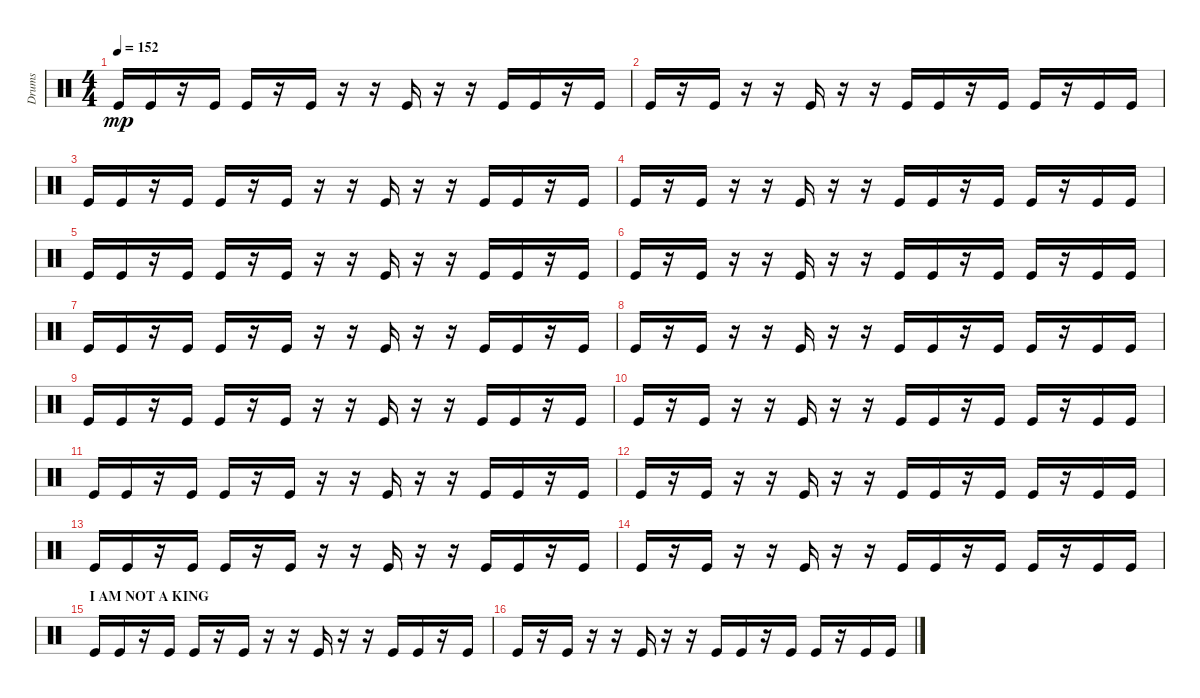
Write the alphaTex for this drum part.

\track ("Drums" "Drums") {instrument percussion}
\staff {score}
\articulation defaults
\ts (4 4)
\tempo 152
\clef neutral
\ks c "Kick (hit)".16{dy mp} "Kick (hit)".16
r.16 "Kick (hit)".16 "Kick (hit)".16 r.16 "Kick (hit)".16 r.16 r.16 "Kick (hit)".16 r.16 r.16 "Kick (hit)".16 "Kick (hit)".16 r.16 "Kick (hit)".16 |
"Kick (hit)".16 r.16 "Kick (hit)".16 r.16 r.16 "Kick (hit)".16 r.16 r.16 "Kick (hit)".16 "Kick (hit)".16 r.16 "Kick (hit)".16 "Kick (hit)".16 r.16 "Kick (hit)".16 "Kick (hit)".16 |
"Kick (hit)".16 "Kick (hit)".16 r.16 "Kick (hit)".16 "Kick (hit)".16 r.16 "Kick (hit)".16 r.16 r.16 "Kick (hit)".16 r.16 r.16 "Kick (hit)".16 "Kick (hit)".16 r.16 "Kick (hit)".16 |
"Kick (hit)".16 r.16 "Kick (hit)".16 r.16 r.16 "Kick (hit)".16 r.16 r.16 "Kick (hit)".16 "Kick (hit)".16 r.16 "Kick (hit)".16 "Kick (hit)".16 r.16 "Kick (hit)".16 "Kick (hit)".16 |
"Kick (hit)".16 "Kick (hit)".16 r.16 "Kick (hit)".16 "Kick (hit)".16 r.16 "Kick (hit)".16 r.16 r.16 "Kick (hit)".16 r.16 r.16 "Kick (hit)".16 "Kick (hit)".16 r.16 "Kick (hit)".16 |
"Kick (hit)".16 r.16 "Kick (hit)".16 r.16 r.16 "Kick (hit)".16 r.16 r.16 "Kick (hit)".16 "Kick (hit)".16 r.16 "Kick (hit)".16 "Kick (hit)".16 r.16 "Kick (hit)".16 "Kick (hit)".16 |
"Kick (hit)".16 "Kick (hit)".16 r.16 "Kick (hit)".16 "Kick (hit)".16 r.16 "Kick (hit)".16 r.16 r.16 "Kick (hit)".16 r.16 r.16 "Kick (hit)".16 "Kick (hit)".16 r.16 "Kick (hit)".16 |
"Kick (hit)".16 r.16 "Kick (hit)".16 r.16 r.16 "Kick (hit)".16 r.16 r.16 "Kick (hit)".16 "Kick (hit)".16 r.16 "Kick (hit)".16 "Kick (hit)".16 r.16 "Kick (hit)".16 "Kick (hit)".16 |
"Kick (hit)".16 "Kick (hit)".16 r.16 "Kick (hit)".16 "Kick (hit)".16 r.16 "Kick (hit)".16 r.16 r.16 "Kick (hit)".16 r.16 r.16 "Kick (hit)".16 "Kick (hit)".16 r.16 "Kick (hit)".16 |
"Kick (hit)".16 r.16 "Kick (hit)".16 r.16 r.16 "Kick (hit)".16 r.16 r.16 "Kick (hit)".16 "Kick (hit)".16 r.16 "Kick (hit)".16 "Kick (hit)".16 r.16 "Kick (hit)".16 "Kick (hit)".16 |
"Kick (hit)".16 "Kick (hit)".16 r.16 "Kick (hit)".16 "Kick (hit)".16 r.16 "Kick (hit)".16 r.16 r.16 "Kick (hit)".16 r.16 r.16 "Kick (hit)".16 "Kick (hit)".16 r.16 "Kick (hit)".16 |
"Kick (hit)".16 r.16 "Kick (hit)".16 r.16 r.16 "Kick (hit)".16 r.16 r.16 "Kick (hit)".16 "Kick (hit)".16 r.16 "Kick (hit)".16 "Kick (hit)".16 r.16 "Kick (hit)".16 "Kick (hit)".16 |
"Kick (hit)".16 "Kick (hit)".16 r.16 "Kick (hit)".16 "Kick (hit)".16 r.16 "Kick (hit)".16 r.16 r.16 "Kick (hit)".16 r.16 r.16 "Kick (hit)".16 "Kick (hit)".16 r.16 "Kick (hit)".16 |
"Kick (hit)".16 r.16 "Kick (hit)".16 r.16 r.16 "Kick (hit)".16 r.16 r.16 "Kick (hit)".16 "Kick (hit)".16 r.16 "Kick (hit)".16 "Kick (hit)".16 r.16 "Kick (hit)".16 "Kick (hit)".16 |
\section ("" "I AM NOT A KING")
"Kick (hit)".16 "Kick (hit)".16 r.16 "Kick (hit)".16 "Kick (hit)".16 r.16 "Kick (hit)".16 r.16 r.16 "Kick (hit)".16 r.16 r.16 "Kick (hit)".16 "Kick (hit)".16 r.16 "Kick (hit)".16 |
"Kick (hit)".16 r.16 "Kick (hit)".16 r.16 r.16 "Kick (hit)".16 r.16 r.16 "Kick (hit)".16 "Kick (hit)".16 r.16 "Kick (hit)".16 "Kick (hit)".16 r.16 "Kick (hit)".16 "Kick (hit)".16
